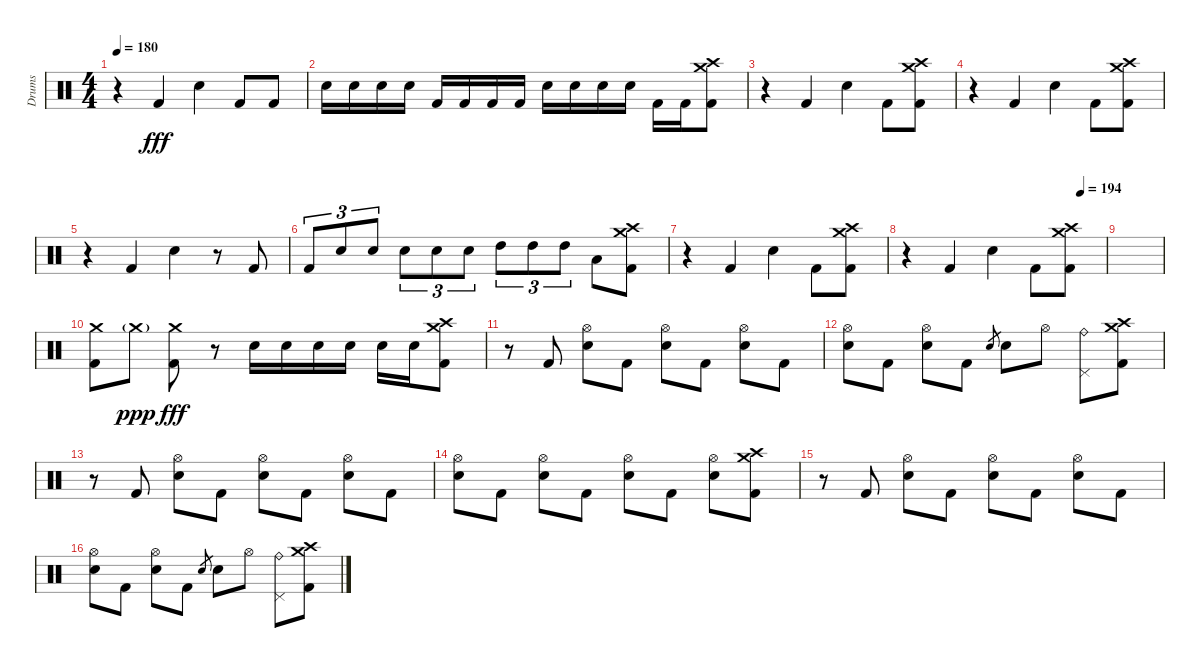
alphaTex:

\track ("Drums" "Drums") {instrument percussion}
\staff {score}
\articulation defaults
\ts (4 4)
\tempo 180
\clef neutral
\ks c
r.4{dy fff} "Kick (hit) 2".4 "Electric Snare (hit)".4 "Kick (hit) 2".8 "Kick (hit) 2".8 |
"Electric Snare (hit)".16 "Electric Snare (hit)".16 "Electric Snare (hit)".16 "Electric Snare (hit)".16 "Kick (hit) 2".16 "Kick (hit) 2".16 "Kick (hit) 2".16 "Kick (hit) 2".16 "Electric Snare (hit)".16 "Electric Snare (hit)".16 "Electric Snare (hit)".16 "Electric Snare (hit)".16 "Kick (hit) 2".16 "Kick (hit) 2".16 ("Crash medium (hit)" "Crash high (hit)" "Kick (hit) 2").8 |
r.4 "Kick (hit) 2".4 "Electric Snare (hit)".4 "Kick (hit) 2".8 ("Crash medium (hit)" "Crash high (hit)" "Kick (hit) 2").8 |
r.4 "Kick (hit) 2".4 "Electric Snare (hit)".4 "Kick (hit) 2".8 ("Crash medium (hit)" "Crash high (hit)" "Kick (hit) 2").8 |
r.4 "Kick (hit) 2".4 "Electric Snare (hit)".4 r.8 "Kick (hit) 2".8 |
"Kick (hit) 2".8{tu (3 2)} "Electric Snare (hit)".8{tu (3 2)} "Electric Snare (hit)".8{tu (3 2)} "Electric Snare (hit)".8{tu (3 2)} "Electric Snare (hit)".8{tu (3 2)} "Electric Snare (hit)".8{tu (3 2)} "High Tom (hit)".8{tu (3 2)} "High Tom (hit)".8{tu (3 2)} "High Tom (hit)".8{tu (3 2)} "Low Tom (hit)".8 ("Crash medium (hit)" "Crash high (hit)" "Kick (hit) 2").8 |
r.4 "Kick (hit) 2".4 "Electric Snare (hit)".4 "Kick (hit) 2".8 ("Crash medium (hit)" "Crash high (hit)" "Kick (hit) 2").8 |
\tempo (194 0.875)
r.4 "Kick (hit) 2".4 "Electric Snare (hit)".4 "Kick (hit) 2".8 ("Crash medium (hit)" "Crash high (hit)" "Kick (hit) 2").8 |
|
("Crash medium (hit)" "Kick (hit) 2").8 "Crash medium (hit)"{g}.8{dy ppp} ("Crash medium (hit)" "Kick (hit) 2").8{dy fff} r.8 "Electric Snare (hit)".16 "Electric Snare (hit)".16 "Electric Snare (hit)".16 "Electric Snare (hit)".16 "Electric Snare (hit)".16 "Electric Snare (hit)".16 ("Crash medium (hit)" "Crash high (hit)" "Kick (hit) 2").8 |
r.8 "Kick (hit) 2".8 ("Hi-Hat (open)" "Electric Snare (hit)").8 "Kick (hit) 2".8 ("Hi-Hat (open)" "Electric Snare (hit)").8 "Kick (hit) 2".8 ("Hi-Hat (open)" "Electric Snare (hit)").8 "Kick (hit) 2".8 |
("Hi-Hat (open)" "Electric Snare (hit)").8 "Kick (hit) 2".8 ("Hi-Hat (open)" "Electric Snare (hit)").8 "Kick (hit) 2".8 "Electric Snare (hit)".8{gr} "Electric Snare (hit)".8 "Hi-Hat (open)".8 ("Ride (bell)" "Pedal Hi-Hat (hit)").8 ("Crash medium (hit)" "Crash high (hit)" "Kick (hit) 2").8 |
r.8 "Kick (hit) 2".8 ("Hi-Hat (open)" "Electric Snare (hit)").8 "Kick (hit) 2".8 ("Hi-Hat (open)" "Electric Snare (hit)").8 "Kick (hit) 2".8 ("Hi-Hat (open)" "Electric Snare (hit)").8 "Kick (hit) 2".8 |
("Hi-Hat (open)" "Electric Snare (hit)").8 "Kick (hit) 2".8 ("Hi-Hat (open)" "Electric Snare (hit)").8 "Kick (hit) 2".8 ("Hi-Hat (open)" "Electric Snare (hit)").8 "Kick (hit) 2".8 ("Hi-Hat (open)" "Electric Snare (hit)").8 ("Crash medium (hit)" "Crash high (hit)" "Kick (hit) 2").8 |
r.8 "Kick (hit) 2".8 ("Hi-Hat (open)" "Electric Snare (hit)").8 "Kick (hit) 2".8 ("Hi-Hat (open)" "Electric Snare (hit)").8 "Kick (hit) 2".8 ("Hi-Hat (open)" "Electric Snare (hit)").8 "Kick (hit) 2".8 |
("Hi-Hat (open)" "Electric Snare (hit)").8 "Kick (hit) 2".8 ("Hi-Hat (open)" "Electric Snare (hit)").8 "Kick (hit) 2".8 "Electric Snare (hit)".8{gr} "Electric Snare (hit)".8 "Hi-Hat (open)".8 ("Ride (bell)" "Pedal Hi-Hat (hit)").8 ("Crash medium (hit)" "Crash high (hit)" "Kick (hit) 2").8
